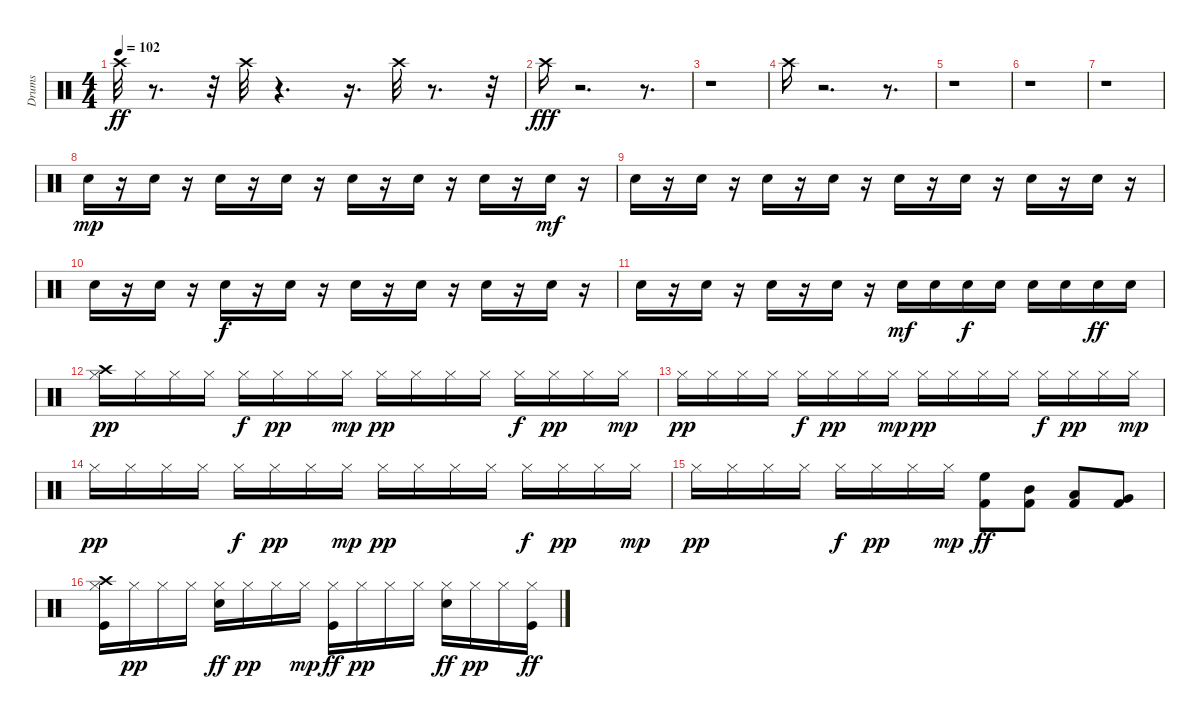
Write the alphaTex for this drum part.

\track ("Drums" "Drums") {instrument percussion}
\staff {score}
\articulation defaults
\ts (4 4)
\tempo 102
\clef neutral
\ks c "Crash high (hit)".32{dy ff}
r.8{d} r.32 "Crash high (hit)".32 r.4{d} r.16{d} "Crash high (hit)".32 r.8{d} r.32 |
"Crash high (hit)".16{dy fff} r.2{d} r.8{d} |
r.1 |
"Crash high (hit)".16 r.2{d} r.8{d} |
r.1 |
r.1 |
r.1 |
"Electric Snare (hit)".16{dy mp} r.16 "Electric Snare (hit)".16 r.16 "Electric Snare (hit)".16 r.16 "Electric Snare (hit)".16 r.16 "Electric Snare (hit)".16 r.16 "Electric Snare (hit)".16 r.16 "Electric Snare (hit)".16 r.16 "Electric Snare (hit)".16{dy mf} r.16 |
"Electric Snare (hit)".16 r.16 "Electric Snare (hit)".16 r.16 "Electric Snare (hit)".16 r.16 "Electric Snare (hit)".16 r.16 "Electric Snare (hit)".16 r.16 "Electric Snare (hit)".16 r.16 "Electric Snare (hit)".16 r.16 "Electric Snare (hit)".16 r.16 |
"Electric Snare (hit)".16 r.16 "Electric Snare (hit)".16 r.16 "Electric Snare (hit)".16{dy f} r.16 "Electric Snare (hit)".16 r.16 "Electric Snare (hit)".16 r.16 "Electric Snare (hit)".16 r.16 "Electric Snare (hit)".16 r.16 "Electric Snare (hit)".16 r.16 |
"Electric Snare (hit)".16 r.16 "Electric Snare (hit)".16 r.16 "Electric Snare (hit)".16 r.16 "Electric Snare (hit)".16 r.16 "Electric Snare (hit)".16{dy mf} "Electric Snare (hit)".16 "Electric Snare (hit)".16{dy f} "Electric Snare (hit)".16 "Electric Snare (hit)".16 "Electric Snare (hit)".16 "Electric Snare (hit)".16{dy ff} "Electric Snare (hit)".16 |
("Hi-Hat (closed)" "Crash high (hit)").16{dy pp} "Hi-Hat (closed)".16 "Hi-Hat (closed)".16 "Hi-Hat (closed)".16 "Hi-Hat (closed)".16{dy f} "Hi-Hat (closed)".16{dy pp} "Hi-Hat (closed)".16 "Hi-Hat (closed)".16{dy mp} "Hi-Hat (closed)".16{dy pp} "Hi-Hat (closed)".16 "Hi-Hat (closed)".16 "Hi-Hat (closed)".16 "Hi-Hat (closed)".16{dy f} "Hi-Hat (closed)".16{dy pp} "Hi-Hat (closed)".16 "Hi-Hat (closed)".16{dy mp} |
"Hi-Hat (closed)".16{dy pp} "Hi-Hat (closed)".16 "Hi-Hat (closed)".16 "Hi-Hat (closed)".16 "Hi-Hat (closed)".16{dy f} "Hi-Hat (closed)".16{dy pp} "Hi-Hat (closed)".16 "Hi-Hat (closed)".16{dy mp} "Hi-Hat (closed)".16{dy pp} "Hi-Hat (closed)".16 "Hi-Hat (closed)".16 "Hi-Hat (closed)".16 "Hi-Hat (closed)".16{dy f} "Hi-Hat (closed)".16{dy pp} "Hi-Hat (closed)".16 "Hi-Hat (closed)".16{dy mp} |
"Hi-Hat (closed)".16{dy pp} "Hi-Hat (closed)".16 "Hi-Hat (closed)".16 "Hi-Hat (closed)".16 "Hi-Hat (closed)".16{dy f} "Hi-Hat (closed)".16{dy pp} "Hi-Hat (closed)".16 "Hi-Hat (closed)".16{dy mp} "Hi-Hat (closed)".16{dy pp} "Hi-Hat (closed)".16 "Hi-Hat (closed)".16 "Hi-Hat (closed)".16 "Hi-Hat (closed)".16{dy f} "Hi-Hat (closed)".16{dy pp} "Hi-Hat (closed)".16 "Hi-Hat (closed)".16{dy mp} |
"Hi-Hat (closed)".16{dy pp} "Hi-Hat (closed)".16 "Hi-Hat (closed)".16 "Hi-Hat (closed)".16 "Hi-Hat (closed)".16{dy f} "Hi-Hat (closed)".16{dy pp} "Hi-Hat (closed)".16 "Hi-Hat (closed)".16{dy mp} ("High Floor Tom (hit)" "Kick (hit) 2").8{dy ff} ("Mid Tom (hit)" "Kick (hit) 2").8 ("Low Tom (hit)" "Kick (hit) 2").8 ("Kick (hit) 2" "Very Low Tom (hit)").8 |
("Hi-Hat (closed)" "Crash high (hit)" "Kick (hit)").16 "Hi-Hat (closed)".16{dy pp} "Hi-Hat (closed)".16 "Hi-Hat (closed)".16 ("Hi-Hat (closed)" "Snare (hit) 2").16{dy ff} "Hi-Hat (closed)".16{dy pp} "Hi-Hat (closed)".16 "Hi-Hat (closed)".16{dy mp} ("Hi-Hat (closed)" "Kick (hit)").16{dy ff} "Hi-Hat (closed)".16{dy pp} "Hi-Hat (closed)".16 "Hi-Hat (closed)".16 ("Hi-Hat (closed)" "Snare (hit) 2").16{dy ff} "Hi-Hat (closed)".16{dy pp} "Hi-Hat (closed)".16 ("Hi-Hat (closed)" "Kick (hit)").16{dy ff}
